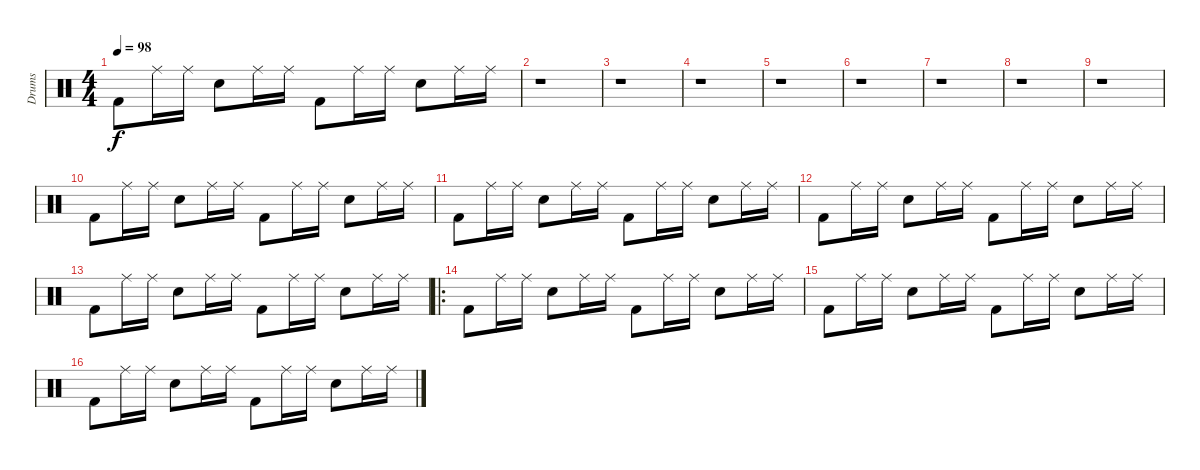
\track ("Drums" "Drums") {instrument percussion}
\staff {score}
\articulation defaults
\ts (4 4)
\tempo 98
\clef neutral
\ks c "Kick (hit) 2".8{dy f} "Ride (middle)".16 "Ride (middle)".16 "Snare (hit) 2".8 "Ride (middle)".16 "Ride (middle)".16 "Kick (hit) 2".8 "Ride (middle)".16 "Ride (middle)".16 "Snare (hit) 2".8 "Ride (middle)".16 "Ride (middle)".16
|
r.1 |
r.1 |
r.1 |
r.1 |
r.1 |
r.1 |
r.1 |
r.1 |
"Kick (hit) 2".8 "Ride (middle)".16 "Ride (middle)".16 "Snare (hit) 2".8 "Ride (middle)".16 "Ride (middle)".16 "Kick (hit) 2".8 "Ride (middle)".16 "Ride (middle)".16 "Snare (hit) 2".8 "Ride (middle)".16 "Ride (middle)".16 |
"Kick (hit) 2".8 "Ride (middle)".16 "Ride (middle)".16 "Snare (hit) 2".8 "Ride (middle)".16 "Ride (middle)".16 "Kick (hit) 2".8 "Ride (middle)".16 "Ride (middle)".16 "Snare (hit) 2".8 "Ride (middle)".16 "Ride (middle)".16 |
"Kick (hit) 2".8 "Ride (middle)".16 "Ride (middle)".16 "Snare (hit) 2".8 "Ride (middle)".16 "Ride (middle)".16 "Kick (hit) 2".8 "Ride (middle)".16 "Ride (middle)".16 "Snare (hit) 2".8 "Ride (middle)".16 "Ride (middle)".16 |
"Kick (hit) 2".8 "Ride (middle)".16 "Ride (middle)".16 "Snare (hit) 2".8 "Ride (middle)".16 "Ride (middle)".16 "Kick (hit) 2".8 "Ride (middle)".16 "Ride (middle)".16 "Snare (hit) 2".8 "Ride (middle)".16 "Ride (middle)".16 |
\ro "Kick (hit) 2".8 "Ride (middle)".16 "Ride (middle)".16 "Snare (hit) 2".8 "Ride (middle)".16 "Ride (middle)".16 "Kick (hit) 2".8 "Ride (middle)".16 "Ride (middle)".16 "Snare (hit) 2".8 "Ride (middle)".16 "Ride (middle)".16
|
"Kick (hit) 2".8 "Ride (middle)".16 "Ride (middle)".16 "Snare (hit) 2".8 "Ride (middle)".16 "Ride (middle)".16 "Kick (hit) 2".8 "Ride (middle)".16 "Ride (middle)".16 "Snare (hit) 2".8 "Ride (middle)".16 "Ride (middle)".16 |
"Kick (hit) 2".8 "Ride (middle)".16 "Ride (middle)".16 "Snare (hit) 2".8 "Ride (middle)".16 "Ride (middle)".16 "Kick (hit) 2".8 "Ride (middle)".16 "Ride (middle)".16 "Snare (hit) 2".8 "Ride (middle)".16 "Ride (middle)".16
